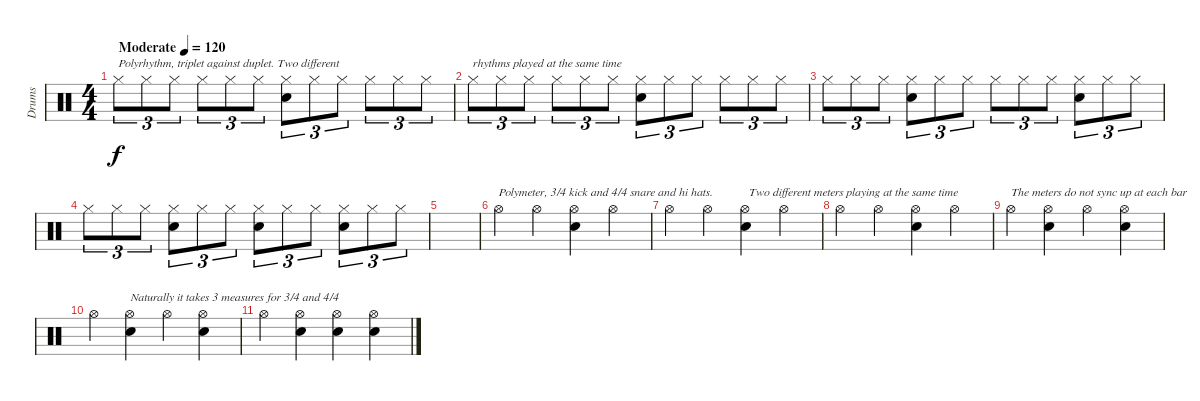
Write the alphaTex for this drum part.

\track ("Drums" "Drums") {instrument percussion}
\staff {score}
\articulation defaults
\ts (4 4)
\section ("" "")
\tempo (120 "Moderate")
\clef neutral
\ks c "Hi-Hat (closed)".8{tu (3 2) txt "Polyrhythm, triplet against duplet. Two different" dy f} "Hi-Hat (closed)".8{tu (3 2)} "Hi-Hat (closed)".8{tu (3 2)} "Hi-Hat (closed)".8{tu (3 2)} "Hi-Hat (closed)".8{tu (3 2)} "Hi-Hat (closed)".8{tu (3 2)}
("Hi-Hat (closed)" "Electric Snare (hit)").8{tu (3 2)} "Hi-Hat (closed)".8{tu (3 2)} "Hi-Hat (closed)".8{tu (3 2)} "Hi-Hat (closed)".8{tu (3 2)} "Hi-Hat (closed)".8{tu (3 2)} "Hi-Hat (closed)".8{tu (3 2)} |
"Hi-Hat (closed)".8{tu (3 2) txt "rhythms played at the same time"} "Hi-Hat (closed)".8{tu (3 2)} "Hi-Hat (closed)".8{tu (3 2)} "Hi-Hat (closed)".8{tu (3 2)} "Hi-Hat (closed)".8{tu (3 2)} "Hi-Hat (closed)".8{tu (3 2)} ("Hi-Hat (closed)" "Electric Snare (hit)").8{tu (3 2)} "Hi-Hat (closed)".8{tu (3 2)} "Hi-Hat (closed)".8{tu (3 2)} "Hi-Hat (closed)".8{tu (3 2)} "Hi-Hat (closed)".8{tu (3 2)} "Hi-Hat (closed)".8{tu (3 2)} |
"Hi-Hat (closed)".8{tu (3 2)} "Hi-Hat (closed)".8{tu (3 2)} "Hi-Hat (closed)".8{tu (3 2)} ("Hi-Hat (closed)" "Electric Snare (hit)").8{tu (3 2)} "Hi-Hat (closed)".8{tu (3 2)} "Hi-Hat (closed)".8{tu (3 2)} "Hi-Hat (closed)".8{tu (3 2)} "Hi-Hat (closed)".8{tu (3 2)} "Hi-Hat (closed)".8{tu (3 2)} ("Hi-Hat (closed)" "Electric Snare (hit)").8{tu (3 2)} "Hi-Hat (closed)".8{tu (3 2)} "Hi-Hat (closed)".8{tu (3 2)} |
"Hi-Hat (closed)".8{tu (3 2)} "Hi-Hat (closed)".8{tu (3 2)} "Hi-Hat (closed)".8{tu (3 2)} ("Hi-Hat (closed)" "Electric Snare (hit)").8{tu (3 2)} "Hi-Hat (closed)".8{tu (3 2)} "Hi-Hat (closed)".8{tu (3 2)} ("Hi-Hat (closed)" "Electric Snare (hit)").8{tu (3 2)} "Hi-Hat (closed)".8{tu (3 2)} "Hi-Hat (closed)".8{tu (3 2)} ("Hi-Hat (closed)" "Electric Snare (hit)").8{tu (3 2)} "Hi-Hat (closed)".8{tu (3 2)} "Hi-Hat (closed)".8{tu (3 2)} |
|
"Hi-Hat (open)".4{txt "Polymeter, 3/4 kick and 4/4 snare and hi hats."} "Hi-Hat (open)".4 ("Hi-Hat (open)" "Electric Snare (hit)").4 "Hi-Hat (open)".4 |
"Hi-Hat (open)".4 "Hi-Hat (open)".4 ("Hi-Hat (open)" "Electric Snare (hit)").4{txt " Two different meters playing at the same time"} "Hi-Hat (open)".4 |
"Hi-Hat (open)".4 "Hi-Hat (open)".4 ("Hi-Hat (open)" "Electric Snare (hit)").4 "Hi-Hat (open)".4 |
"Hi-Hat (open)".4{txt "The meters do not sync up at each bar"} ("Hi-Hat (open)" "Electric Snare (hit)").4 "Hi-Hat (open)".4 ("Hi-Hat (open)" "Electric Snare (hit)").4 |
"Hi-Hat (open)".4 ("Hi-Hat (open)" "Electric Snare (hit)").4{txt "Naturally it takes 3 measures for 3/4 and 4/4"} "Hi-Hat (open)".4 ("Hi-Hat (open)" "Electric Snare (hit)").4 |
"Hi-Hat (open)".4 ("Hi-Hat (open)" "Electric Snare (hit)").4 ("Hi-Hat (open)" "Electric Snare (hit)").4 ("Hi-Hat (open)" "Electric Snare (hit)").4
